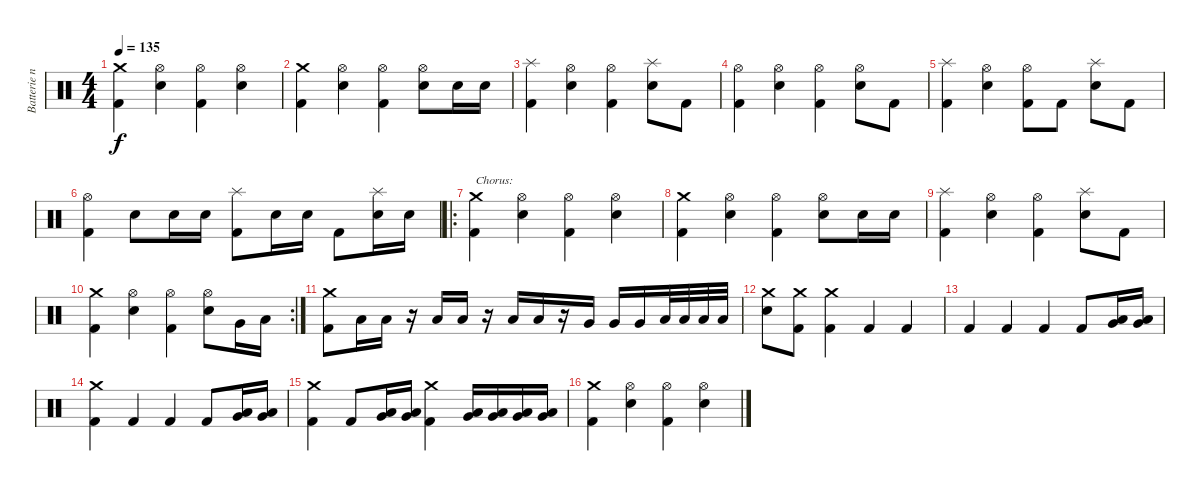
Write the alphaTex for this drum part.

\track ("Batterie n°3" "Batterie n") {instrument percussion}
\staff {score}
\articulation defaults
\ts (4 4)
\tempo 135
\clef neutral
\ks c
("Crash medium (hit)" "Kick (hit) 2").4{dy f} ("Hi-Hat (open)" "Snare (hit) 2").4 ("Hi-Hat (open)" "Kick (hit) 2").4 ("Hi-Hat (open)" "Snare (hit) 2").4 |
("Crash medium (hit)" "Kick (hit) 2").4 ("Hi-Hat (open)" "Snare (hit) 2").4 ("Hi-Hat (open)" "Kick (hit) 2").4 ("Hi-Hat (open)" "Snare (hit) 2").8 "Snare (hit) 2".16 "Snare (hit) 2".16 |
("Splash (hit)" "Kick (hit) 2").4 ("Hi-Hat (open)" "Snare (hit) 2").4 ("Hi-Hat (open)" "Kick (hit) 2").4 ("Splash (hit)" "Snare (hit) 2").8 "Kick (hit) 2".8 |
("Hi-Hat (open)" "Kick (hit) 2").4 ("Hi-Hat (open)" "Snare (hit) 2").4 ("Hi-Hat (open)" "Kick (hit) 2").4 ("Hi-Hat (open)" "Snare (hit) 2").8 "Kick (hit) 2".8 |
("Splash (hit)" "Kick (hit) 2").4 ("Hi-Hat (open)" "Snare (hit) 2").4 ("Hi-Hat (open)" "Kick (hit) 2").8 "Kick (hit) 2".8 ("Splash (hit)" "Snare (hit) 2").8 "Kick (hit) 2".8 |
("Hi-Hat (open)" "Kick (hit) 2").4 "Snare (hit) 2".8 "Snare (hit) 2".16 "Snare (hit) 2".16 ("Splash (hit)" "Kick (hit) 2").8 "Snare (hit) 2".16 "Snare (hit) 2".16 "Kick (hit) 2".8 ("Splash (hit)" "Snare (hit) 2").16 "Snare (hit) 2".16 |
\ro
("Crash medium (hit)" "Kick (hit) 2").4{txt "Chorus:"} ("Hi-Hat (open)" "Snare (hit) 2").4 ("Hi-Hat (open)" "Kick (hit) 2").4 ("Hi-Hat (open)" "Snare (hit) 2").4 |
("Crash medium (hit)" "Kick (hit) 2").4 ("Hi-Hat (open)" "Snare (hit) 2").4 ("Hi-Hat (open)" "Kick (hit) 2").4 ("Hi-Hat (open)" "Snare (hit) 2").8 "Snare (hit) 2".16 "Snare (hit) 2".16 |
("Splash (hit)" "Kick (hit) 2").4 ("Hi-Hat (open)" "Snare (hit) 2").4 ("Hi-Hat (open)" "Kick (hit) 2").4 ("Splash (hit)" "Snare (hit) 2").8 "Kick (hit) 2".8 |
\rc 2
("Crash medium (hit)" "Kick (hit) 2").4 ("Hi-Hat (open)" "Snare (hit) 2").4 ("Hi-Hat (open)" "Kick (hit) 2").4 ("Hi-Hat (open)" "Snare (hit) 2").8 "Very Low Tom (hit)".16 "Low Tom (hit)".16 |
("Crash medium (hit)" "Kick (hit) 2").8 "Low Tom (hit)".16 "Low Tom (hit)".16 r.16 "Low Tom (hit)".16 "Low Tom (hit)".16 r.16 "Low Tom (hit)".16 "Low Tom (hit)".16 r.16 "Very Low Tom (hit)".16 "Very Low Tom (hit)".16 "Very Low Tom (hit)".16 "Low Floor Tom (hit)".32 "Low Floor Tom (hit)".32 "Low Floor Tom (hit)".32 "Low Floor Tom (hit)".32 |
("Crash medium (hit)" "Snare (hit) 2").8 ("Crash medium (hit)" "Kick (hit) 2").8 ("Crash medium (hit)" "Kick (hit) 2").4 "Kick (hit) 2".4 "Kick (hit) 2".4 |
"Kick (hit) 2".4 "Kick (hit) 2".4 "Kick (hit) 2".4 "Kick (hit) 2".8 ("Low Tom (hit)" "Very Low Tom (hit)").16 ("Low Tom (hit)" "Very Low Tom (hit)").16 |
("Crash medium (hit)" "Kick (hit) 2").4 "Kick (hit) 2".4 "Kick (hit) 2".4 "Kick (hit) 2".8 ("Low Tom (hit)" "Very Low Tom (hit)").16 ("Low Tom (hit)" "Very Low Tom (hit)").16 |
("Crash medium (hit)" "Kick (hit) 2").4 "Kick (hit) 2".8 ("Low Tom (hit)" "Very Low Tom (hit)").16 ("Low Tom (hit)" "Very Low Tom (hit)").16 ("Crash medium (hit)" "Kick (hit) 2").4 ("Low Tom (hit)" "Very Low Tom (hit)").16 ("Low Tom (hit)" "Very Low Tom (hit)").16 ("Low Tom (hit)" "Very Low Tom (hit)").16 ("Low Tom (hit)" "Very Low Tom (hit)").16 |
("Crash medium (hit)" "Kick (hit) 2").4 ("Hi-Hat (open)" "Snare (hit) 2").4 ("Hi-Hat (open)" "Kick (hit) 2").4 ("Hi-Hat (open)" "Snare (hit) 2").4
